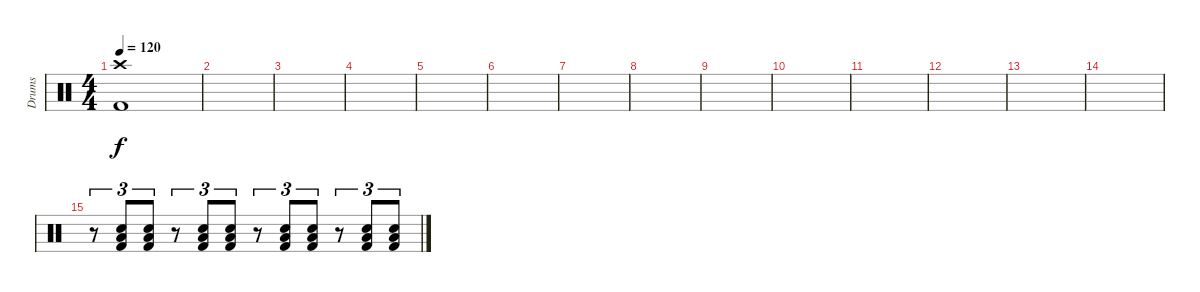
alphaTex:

\track ("Drums" "Drums") {instrument percussion}
\staff
\articulation defaults
\ts (4 4)
\section ("" "")
\tempo 120
\clef neutral
\ks c
("Crash high (hit)" "Kick (hit) 2").1{dy f} |
|
|
|
|
|
|
|
|
|
|
|
|
|
r.8{tu (3 2)} ("Low Floor Tom (hit)" "Electric Snare (hit)" "Kick (hit) 2").8{tu (3 2)} ("Low Floor Tom (hit)" "Electric Snare (hit)" "Kick (hit) 2").8{tu (3 2)} r.8{tu (3 2)} ("Low Floor Tom (hit)" "Electric Snare (hit)" "Kick (hit) 2").8{tu (3 2)} ("Low Floor Tom (hit)" "Electric Snare (hit)" "Kick (hit) 2").8{tu (3 2)} r.8{tu (3 2)} ("Low Floor Tom (hit)" "Electric Snare (hit)" "Kick (hit) 2").8{tu (3 2)} ("Low Floor Tom (hit)" "Electric Snare (hit)" "Kick (hit) 2").8{tu (3 2)} r.8{tu (3 2)} ("Low Floor Tom (hit)" "Electric Snare (hit)" "Kick (hit) 2").8{tu (3 2)} ("Low Floor Tom (hit)" "Electric Snare (hit)" "Kick (hit) 2").8{tu (3 2)}
